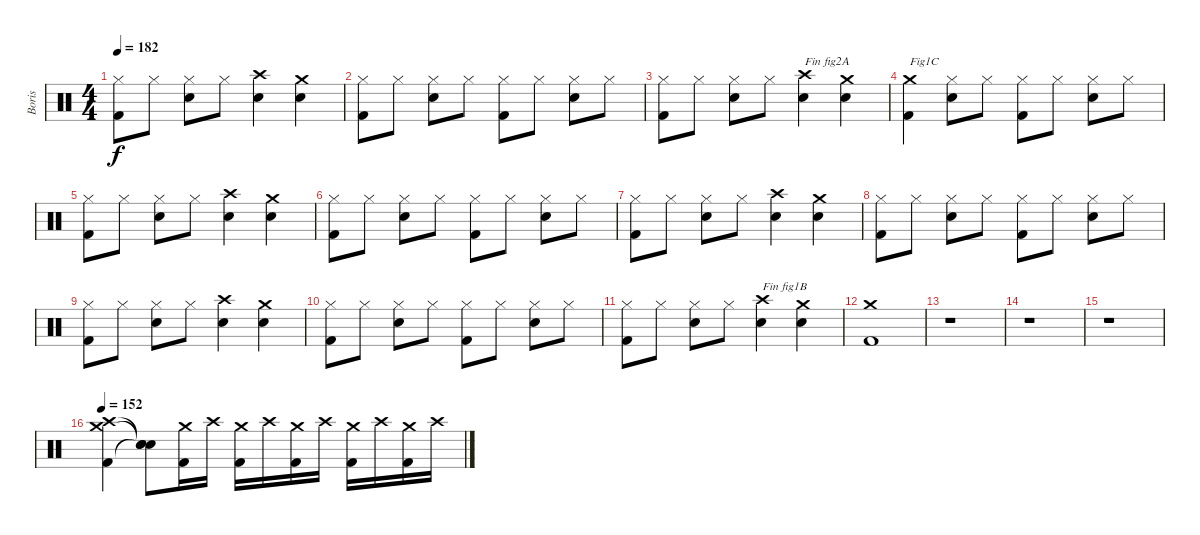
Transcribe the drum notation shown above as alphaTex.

\track ("Boris" "Boris") {instrument percussion}
\staff {score}
\articulation defaults
\ts (4 4)
\tempo 182
\clef neutral
\ks c
("Kick (hit) 2" "Hi-Hat (closed)").8{dy f} "Hi-Hat (closed)".8 ("Electric Snare (hit)" "Hi-Hat (closed)").8 "Hi-Hat (closed)".8 ("Electric Snare (hit)" "Crash high (hit)").4 ("Electric Snare (hit)" "Crash medium (hit)").4 |
("Kick (hit) 2" "Hi-Hat (closed)").8 "Hi-Hat (closed)".8 ("Electric Snare (hit)" "Hi-Hat (closed)").8 "Hi-Hat (closed)".8 ("Kick (hit) 2" "Hi-Hat (closed)").8 "Hi-Hat (closed)".8 ("Electric Snare (hit)" "Hi-Hat (closed)").8 "Hi-Hat (closed)".8 |
("Kick (hit) 2" "Hi-Hat (closed)").8 "Hi-Hat (closed)".8 ("Electric Snare (hit)" "Hi-Hat (closed)").8 "Hi-Hat (closed)".8 ("Electric Snare (hit)" "Crash high (hit)").4{txt "Fin fig2A"} ("Electric Snare (hit)" "Crash medium (hit)").4 |
("Kick (hit) 2" "Crash medium (hit)").4{txt "Fig1C"} ("Electric Snare (hit)" "Hi-Hat (closed)").8 "Hi-Hat (closed)".8 ("Kick (hit) 2" "Hi-Hat (closed)").8 "Hi-Hat (closed)".8 ("Electric Snare (hit)" "Hi-Hat (closed)").8 "Hi-Hat (closed)".8 |
("Kick (hit) 2" "Hi-Hat (closed)").8 "Hi-Hat (closed)".8 ("Electric Snare (hit)" "Hi-Hat (closed)").8 "Hi-Hat (closed)".8 ("Electric Snare (hit)" "Crash high (hit)").4 ("Electric Snare (hit)" "Crash medium (hit)").4 |
("Kick (hit) 2" "Hi-Hat (closed)").8 "Hi-Hat (closed)".8 ("Electric Snare (hit)" "Hi-Hat (closed)").8 "Hi-Hat (closed)".8 ("Kick (hit) 2" "Hi-Hat (closed)").8 "Hi-Hat (closed)".8 ("Electric Snare (hit)" "Hi-Hat (closed)").8 "Hi-Hat (closed)".8 |
("Kick (hit) 2" "Hi-Hat (closed)").8 "Hi-Hat (closed)".8 ("Electric Snare (hit)" "Hi-Hat (closed)").8 "Hi-Hat (closed)".8 ("Electric Snare (hit)" "Crash high (hit)").4 ("Electric Snare (hit)" "Crash medium (hit)").4 |
("Kick (hit) 2" "Hi-Hat (closed)").8 "Hi-Hat (closed)".8 ("Electric Snare (hit)" "Hi-Hat (closed)").8 "Hi-Hat (closed)".8 ("Kick (hit) 2" "Hi-Hat (closed)").8 "Hi-Hat (closed)".8 ("Electric Snare (hit)" "Hi-Hat (closed)").8 "Hi-Hat (closed)".8 |
("Kick (hit) 2" "Hi-Hat (closed)").8 "Hi-Hat (closed)".8 ("Electric Snare (hit)" "Hi-Hat (closed)").8 "Hi-Hat (closed)".8 ("Electric Snare (hit)" "Crash high (hit)").4 ("Electric Snare (hit)" "Crash medium (hit)").4 |
("Kick (hit) 2" "Hi-Hat (closed)").8 "Hi-Hat (closed)".8 ("Electric Snare (hit)" "Hi-Hat (closed)").8 "Hi-Hat (closed)".8 ("Kick (hit) 2" "Hi-Hat (closed)").8 "Hi-Hat (closed)".8 ("Electric Snare (hit)" "Hi-Hat (closed)").8 "Hi-Hat (closed)".8 |
("Kick (hit) 2" "Hi-Hat (closed)").8 "Hi-Hat (closed)".8 ("Electric Snare (hit)" "Hi-Hat (closed)").8 "Hi-Hat (closed)".8 ("Electric Snare (hit)" "Crash high (hit)").4{txt "Fin fig1B"} ("Electric Snare (hit)" "Crash medium (hit)").4 |
("Kick (hit) 2" "Crash medium (hit)").1 |
r.1 |
r.1 |
r.1 |
\tempo 152
("Kick (hit) 2" "Crash high (hit)" "Crash medium (hit)").4 ("Snare (hit)"{t} "Snare (hit)"{t} "Snare (hit)"{t}).8 ("Kick (hit) 2" "Crash medium (hit)").16 "Crash high (hit)".16 ("Kick (hit) 2" "Crash medium (hit)").16 "Crash high (hit)".16 ("Kick (hit) 2" "Crash medium (hit)").16 "Crash high (hit)".16 ("Kick (hit) 2" "Crash medium (hit)").16 "Crash high (hit)".16 ("Kick (hit) 2" "Crash medium (hit)").16 "Crash high (hit)".16
